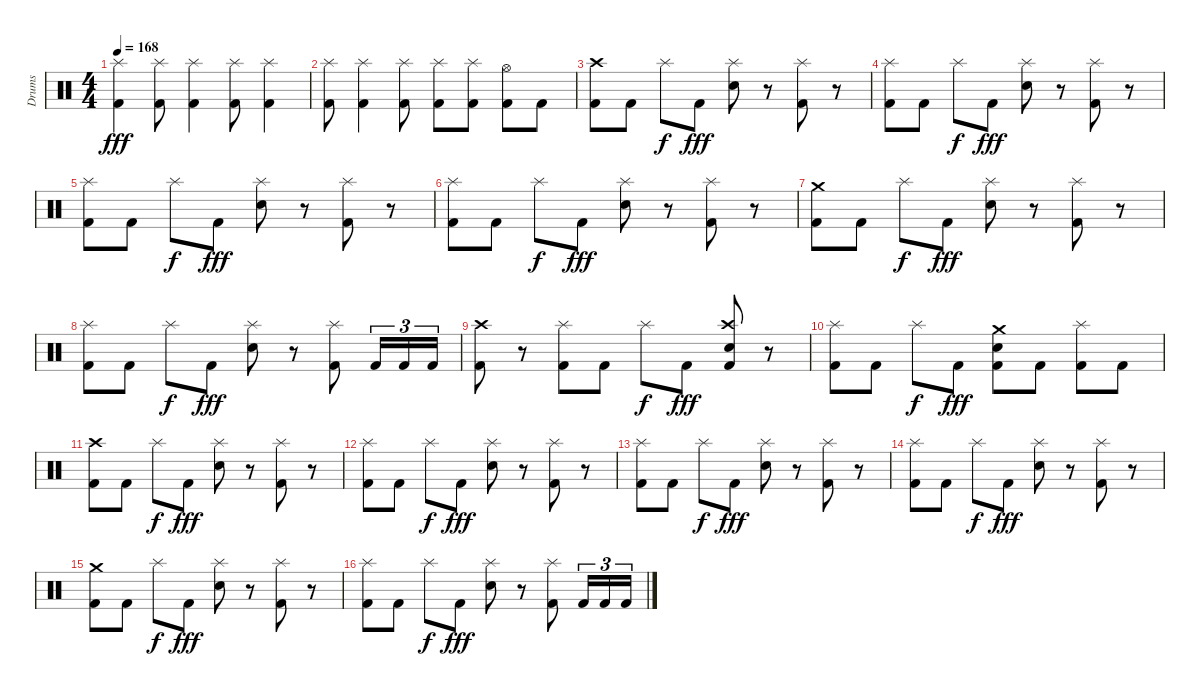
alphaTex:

\track ("Drums" "Drums") {instrument percussion}
\staff {score}
\articulation defaults
\ts (4 4)
\tempo 168
\clef neutral
\ks aminor
("Splash (hit)" "Kick (hit) 2").4{dy fff} ("Splash (hit)" "Kick (hit) 2").8 ("Splash (hit)" "Kick (hit) 2").4 ("Splash (hit)" "Kick (hit) 2").8 ("Splash (hit)" "Kick (hit) 2").4 |
("Splash (hit)" "Kick (hit) 2").8 ("Splash (hit)" "Kick (hit) 2").4 ("Splash (hit)" "Kick (hit) 2").8 ("Splash (hit)" "Kick (hit) 2").8 ("Splash (hit)" "Kick (hit) 2").8 ("Hi-Hat (open)" "Kick (hit) 2").8 "Kick (hit) 2".8 |
("Crash high (hit)" "Kick (hit) 2").8 "Kick (hit) 2".8 "Splash (hit)".8{dy f} "Kick (hit) 2".8{dy fff} ("Splash (hit)" "Snare (hit) 2").8 r.8 ("Splash (hit)" "Kick (hit) 2").8 r.8 |
("Splash (hit)" "Kick (hit) 2").8 "Kick (hit) 2".8 "Splash (hit)".8{dy f} "Kick (hit) 2".8{dy fff} ("Splash (hit)" "Snare (hit) 2").8 r.8 ("Splash (hit)" "Kick (hit) 2").8 r.8 |
("Splash (hit)" "Kick (hit) 2").8 "Kick (hit) 2".8 "Splash (hit)".8{dy f} "Kick (hit) 2".8{dy fff} ("Splash (hit)" "Snare (hit) 2").8 r.8 ("Splash (hit)" "Kick (hit) 2").8 r.8 |
("Splash (hit)" "Kick (hit) 2").8 "Kick (hit) 2".8 "Splash (hit)".8{dy f} "Kick (hit) 2".8{dy fff} ("Splash (hit)" "Snare (hit) 2").8 r.8 ("Splash (hit)" "Kick (hit) 2").8 r.8 |
("Crash medium (hit)" "Kick (hit) 2").8 "Kick (hit) 2".8 "Splash (hit)".8{dy f} "Kick (hit) 2".8{dy fff} ("Splash (hit)" "Snare (hit) 2").8 r.8 ("Splash (hit)" "Kick (hit) 2").8 r.8 |
("Splash (hit)" "Kick (hit) 2").8 "Kick (hit) 2".8 "Splash (hit)".8{dy f} "Kick (hit) 2".8{dy fff} ("Splash (hit)" "Snare (hit) 2").8 r.8 ("Splash (hit)" "Kick (hit) 2").8 "Kick (hit) 2".16{tu (3 2)} "Kick (hit) 2".16{tu (3 2)} "Kick (hit) 2".16{tu (3 2)} |
("Crash high (hit)" "Kick (hit) 2").8 r.8 ("Splash (hit)" "Kick (hit) 2").8 "Kick (hit) 2".8 "Splash (hit)".8{dy f} "Kick (hit) 2".8{dy fff} ("Crash high (hit)" "Snare (hit) 2" "Kick (hit) 2").8 r.8 |
("Splash (hit)" "Kick (hit) 2").8 "Kick (hit) 2".8 "Splash (hit)".8{dy f} "Kick (hit) 2".8{dy fff} ("Crash medium (hit)" "Snare (hit) 2" "Kick (hit) 2").8 "Kick (hit) 2".8 ("Splash (hit)" "Kick (hit) 2").8 "Kick (hit) 2".8 |
("Crash high (hit)" "Kick (hit) 2").8 "Kick (hit) 2".8 "Splash (hit)".8{dy f} "Kick (hit) 2".8{dy fff} ("Splash (hit)" "Snare (hit) 2").8 r.8 ("Splash (hit)" "Kick (hit) 2").8 r.8 |
("Splash (hit)" "Kick (hit) 2").8 "Kick (hit) 2".8 "Splash (hit)".8{dy f} "Kick (hit) 2".8{dy fff} ("Splash (hit)" "Snare (hit) 2").8 r.8 ("Splash (hit)" "Kick (hit) 2").8 r.8 |
("Splash (hit)" "Kick (hit) 2").8 "Kick (hit) 2".8 "Splash (hit)".8{dy f} "Kick (hit) 2".8{dy fff} ("Splash (hit)" "Snare (hit) 2").8 r.8 ("Splash (hit)" "Kick (hit) 2").8 r.8 |
("Splash (hit)" "Kick (hit) 2").8 "Kick (hit) 2".8 "Splash (hit)".8{dy f} "Kick (hit) 2".8{dy fff} ("Splash (hit)" "Snare (hit) 2").8 r.8 ("Splash (hit)" "Kick (hit) 2").8 r.8 |
("Crash medium (hit)" "Kick (hit) 2").8 "Kick (hit) 2".8 "Splash (hit)".8{dy f} "Kick (hit) 2".8{dy fff} ("Splash (hit)" "Snare (hit) 2").8 r.8 ("Splash (hit)" "Kick (hit) 2").8 r.8 |
("Splash (hit)" "Kick (hit) 2").8 "Kick (hit) 2".8 "Splash (hit)".8{dy f} "Kick (hit) 2".8{dy fff} ("Splash (hit)" "Snare (hit) 2").8 r.8 ("Splash (hit)" "Kick (hit) 2").8 "Kick (hit) 2".16{tu (3 2)} "Kick (hit) 2".16{tu (3 2)} "Kick (hit) 2".16{tu (3 2)}
